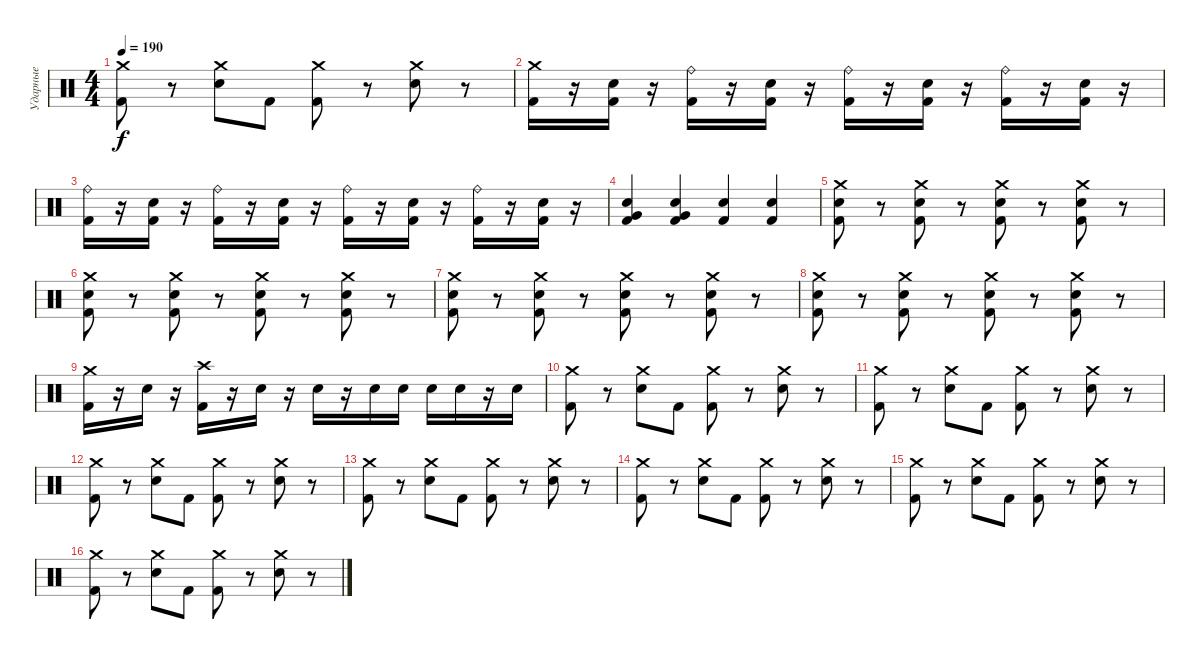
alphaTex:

\track ("Ударные" "Ударные") {instrument percussion}
\staff {score}
\articulation defaults
\ts (4 4)
\tempo 190
\clef neutral
\ks c
("Crash medium (hit)" "Kick (hit) 2").8{dy f} r.8 ("Crash medium (hit)" "Snare (hit) 2").8 "Kick (hit) 2".8 ("Crash medium (hit)" "Kick (hit) 2").8 r.8 ("Crash medium (hit)" "Snare (hit) 2").8 r.8 |
("Crash medium (hit)" "Kick (hit) 2").16 r.16 ("Snare (hit) 2" "Kick (hit) 2").16 r.16 ("Ride (bell)" "Kick (hit) 2").16 r.16 ("Snare (hit) 2" "Kick (hit) 2").16 r.16 ("Ride (bell)" "Kick (hit) 2").16 r.16 ("Snare (hit) 2" "Kick (hit) 2").16 r.16 ("Ride (bell)" "Kick (hit) 2").16 r.16 ("Snare (hit) 2" "Kick (hit) 2").16 r.16 |
("Ride (bell)" "Kick (hit) 2").16 r.16 ("Snare (hit) 2" "Kick (hit) 2").16 r.16 ("Ride (bell)" "Kick (hit) 2").16 r.16 ("Snare (hit) 2" "Kick (hit) 2").16 r.16 ("Ride (bell)" "Kick (hit) 2").16 r.16 ("Snare (hit) 2" "Kick (hit) 2").16 r.16 ("Ride (bell)" "Kick (hit) 2").16 r.16 ("Snare (hit) 2" "Kick (hit) 2").16 r.16 |
("Snare (hit) 2" "Very Low Tom (hit)" "Kick (hit) 2").4 ("Snare (hit) 2" "Very Low Tom (hit)" "Kick (hit) 2").4 ("Snare (hit) 2" "Kick (hit) 2").4 ("Snare (hit) 2" "Kick (hit) 2").4 |
("Crash medium (hit)" "Snare (hit) 2" "Kick (hit) 2").8 r.8 ("Crash medium (hit)" "Snare (hit) 2" "Kick (hit) 2").8 r.8 ("Crash medium (hit)" "Snare (hit) 2" "Kick (hit) 2").8 r.8 ("Crash medium (hit)" "Snare (hit) 2" "Kick (hit) 2").8 r.8 |
("Crash medium (hit)" "Snare (hit) 2" "Kick (hit) 2").8 r.8 ("Crash medium (hit)" "Snare (hit) 2" "Kick (hit) 2").8 r.8 ("Crash medium (hit)" "Snare (hit) 2" "Kick (hit) 2").8 r.8 ("Crash medium (hit)" "Snare (hit) 2" "Kick (hit) 2").8 r.8 |
("Crash medium (hit)" "Snare (hit) 2" "Kick (hit) 2").8 r.8 ("Crash medium (hit)" "Snare (hit) 2" "Kick (hit) 2").8 r.8 ("Crash medium (hit)" "Snare (hit) 2" "Kick (hit) 2").8 r.8 ("Crash medium (hit)" "Snare (hit) 2" "Kick (hit) 2").8 r.8 |
("Crash medium (hit)" "Snare (hit) 2" "Kick (hit) 2").8 r.8 ("Crash medium (hit)" "Snare (hit) 2" "Kick (hit) 2").8 r.8 ("Crash medium (hit)" "Snare (hit) 2" "Kick (hit) 2").8 r.8 ("Crash medium (hit)" "Snare (hit) 2" "Kick (hit) 2").8 r.8 |
("Crash medium (hit)" "Kick (hit) 2").16 r.16 "Snare (hit) 2".16 r.16 ("Crash high (hit)" "Kick (hit) 2").16 r.16 "Snare (hit) 2".16 r.16 "Snare (hit) 2".16 r.16 "Snare (hit) 2".16 "Snare (hit) 2".16 "Snare (hit) 2".16 "Snare (hit) 2".16 r.16 "Snare (hit) 2".16 |
("Crash medium (hit)" "Kick (hit) 2").8 r.8 ("Crash medium (hit)" "Snare (hit) 2").8 "Kick (hit) 2".8 ("Crash medium (hit)" "Kick (hit) 2").8 r.8 ("Crash medium (hit)" "Snare (hit) 2").8 r.8 |
("Crash medium (hit)" "Kick (hit) 2").8 r.8 ("Crash medium (hit)" "Snare (hit) 2").8 "Kick (hit) 2".8 ("Crash medium (hit)" "Kick (hit) 2").8 r.8 ("Crash medium (hit)" "Snare (hit) 2").8 r.8 |
("Crash medium (hit)" "Kick (hit) 2").8 r.8 ("Crash medium (hit)" "Snare (hit) 2").8 "Kick (hit) 2".8 ("Crash medium (hit)" "Kick (hit) 2").8 r.8 ("Crash medium (hit)" "Snare (hit) 2").8 r.8 |
("Crash medium (hit)" "Kick (hit) 2").8 r.8 ("Crash medium (hit)" "Snare (hit) 2").8 "Kick (hit) 2".8 ("Crash medium (hit)" "Kick (hit) 2").8 r.8 ("Crash medium (hit)" "Snare (hit) 2").8 r.8 |
("Crash medium (hit)" "Kick (hit) 2").8 r.8 ("Crash medium (hit)" "Snare (hit) 2").8 "Kick (hit) 2".8 ("Crash medium (hit)" "Kick (hit) 2").8 r.8 ("Crash medium (hit)" "Snare (hit) 2").8 r.8 |
("Crash medium (hit)" "Kick (hit) 2").8 r.8 ("Crash medium (hit)" "Snare (hit) 2").8 "Kick (hit) 2".8 ("Crash medium (hit)" "Kick (hit) 2").8 r.8 ("Crash medium (hit)" "Snare (hit) 2").8 r.8 |
("Crash medium (hit)" "Kick (hit) 2").8 r.8 ("Crash medium (hit)" "Snare (hit) 2").8 "Kick (hit) 2".8 ("Crash medium (hit)" "Kick (hit) 2").8 r.8 ("Crash medium (hit)" "Snare (hit) 2").8 r.8
